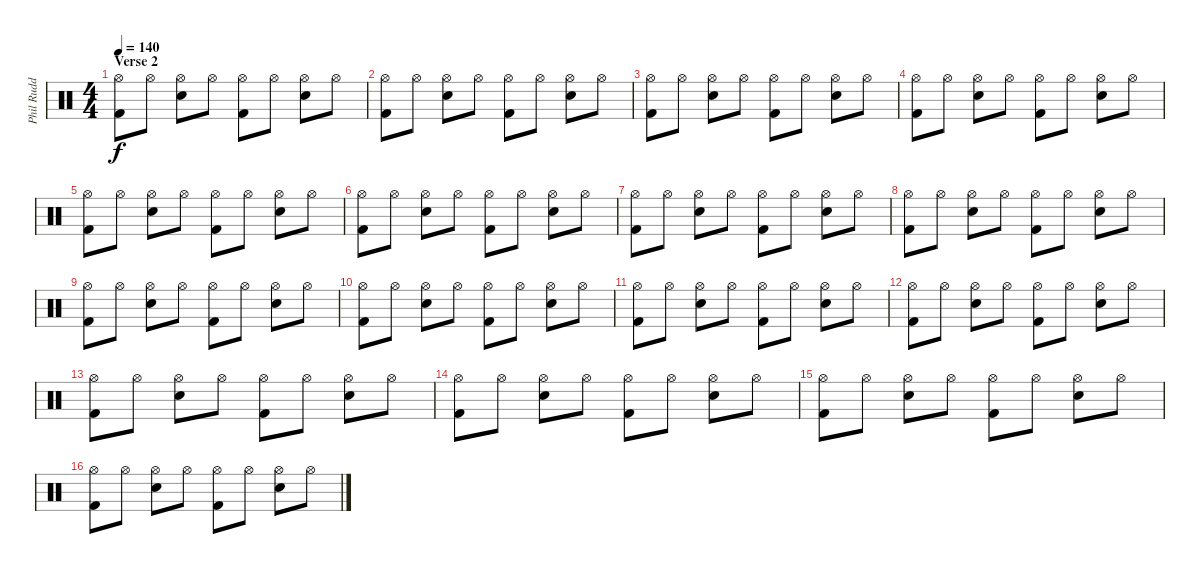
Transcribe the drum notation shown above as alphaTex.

\track ("Phil Rudd" "Phil Rudd") {instrument percussion}
\staff {score}
\articulation defaults
\ts (4 4)
\section ("" "Verse 2")
\tempo 140
\clef neutral
\ks c
("Hi-Hat (open)" "Kick (hit) 2").8{dy f} "Hi-Hat (open)".8 ("Hi-Hat (open)" "Snare (hit) 2").8 "Hi-Hat (open)".8 ("Hi-Hat (open)" "Kick (hit) 2").8 "Hi-Hat (open)".8 ("Hi-Hat (open)" "Snare (hit) 2").8 "Hi-Hat (open)".8 |
("Hi-Hat (open)" "Kick (hit) 2").8 "Hi-Hat (open)".8 ("Hi-Hat (open)" "Snare (hit) 2").8 "Hi-Hat (open)".8 ("Hi-Hat (open)" "Kick (hit) 2").8 "Hi-Hat (open)".8 ("Hi-Hat (open)" "Snare (hit) 2").8 "Hi-Hat (open)".8 |
("Hi-Hat (open)" "Kick (hit) 2").8 "Hi-Hat (open)".8 ("Hi-Hat (open)" "Snare (hit) 2").8 "Hi-Hat (open)".8 ("Hi-Hat (open)" "Kick (hit) 2").8 "Hi-Hat (open)".8 ("Hi-Hat (open)" "Snare (hit) 2").8 "Hi-Hat (open)".8 |
("Hi-Hat (open)" "Kick (hit) 2").8 "Hi-Hat (open)".8 ("Hi-Hat (open)" "Snare (hit) 2").8 "Hi-Hat (open)".8 ("Hi-Hat (open)" "Kick (hit) 2").8 "Hi-Hat (open)".8 ("Hi-Hat (open)" "Snare (hit) 2").8 "Hi-Hat (open)".8 |
("Hi-Hat (open)" "Kick (hit) 2").8 "Hi-Hat (open)".8 ("Hi-Hat (open)" "Snare (hit) 2").8 "Hi-Hat (open)".8 ("Hi-Hat (open)" "Kick (hit) 2").8 "Hi-Hat (open)".8 ("Hi-Hat (open)" "Snare (hit) 2").8 "Hi-Hat (open)".8 |
("Hi-Hat (open)" "Kick (hit) 2").8 "Hi-Hat (open)".8 ("Hi-Hat (open)" "Snare (hit) 2").8 "Hi-Hat (open)".8 ("Hi-Hat (open)" "Kick (hit) 2").8 "Hi-Hat (open)".8 ("Hi-Hat (open)" "Snare (hit) 2").8 "Hi-Hat (open)".8 |
("Hi-Hat (open)" "Kick (hit) 2").8 "Hi-Hat (open)".8 ("Hi-Hat (open)" "Snare (hit) 2").8 "Hi-Hat (open)".8 ("Hi-Hat (open)" "Kick (hit) 2").8 "Hi-Hat (open)".8 ("Hi-Hat (open)" "Snare (hit) 2").8 "Hi-Hat (open)".8 |
("Hi-Hat (open)" "Kick (hit) 2").8 "Hi-Hat (open)".8 ("Hi-Hat (open)" "Snare (hit) 2").8 "Hi-Hat (open)".8 ("Hi-Hat (open)" "Kick (hit) 2").8 "Hi-Hat (open)".8 ("Hi-Hat (open)" "Snare (hit) 2").8 "Hi-Hat (open)".8 |
("Hi-Hat (open)" "Kick (hit) 2").8 "Hi-Hat (open)".8 ("Hi-Hat (open)" "Snare (hit) 2").8 "Hi-Hat (open)".8 ("Hi-Hat (open)" "Kick (hit) 2").8 "Hi-Hat (open)".8 ("Hi-Hat (open)" "Snare (hit) 2").8 "Hi-Hat (open)".8 |
("Hi-Hat (open)" "Kick (hit) 2").8 "Hi-Hat (open)".8 ("Hi-Hat (open)" "Snare (hit) 2").8 "Hi-Hat (open)".8 ("Hi-Hat (open)" "Kick (hit) 2").8 "Hi-Hat (open)".8 ("Hi-Hat (open)" "Snare (hit) 2").8 "Hi-Hat (open)".8 |
("Hi-Hat (open)" "Kick (hit) 2").8 "Hi-Hat (open)".8 ("Hi-Hat (open)" "Snare (hit) 2").8 "Hi-Hat (open)".8 ("Hi-Hat (open)" "Kick (hit) 2").8 "Hi-Hat (open)".8 ("Hi-Hat (open)" "Snare (hit) 2").8 "Hi-Hat (open)".8 |
("Hi-Hat (open)" "Kick (hit) 2").8 "Hi-Hat (open)".8 ("Hi-Hat (open)" "Snare (hit) 2").8 "Hi-Hat (open)".8 ("Hi-Hat (open)" "Kick (hit) 2").8 "Hi-Hat (open)".8 ("Hi-Hat (open)" "Snare (hit) 2").8 "Hi-Hat (open)".8 |
("Hi-Hat (open)" "Kick (hit) 2").8 "Hi-Hat (open)".8 ("Hi-Hat (open)" "Snare (hit) 2").8 "Hi-Hat (open)".8 ("Hi-Hat (open)" "Kick (hit) 2").8 "Hi-Hat (open)".8 ("Hi-Hat (open)" "Snare (hit) 2").8 "Hi-Hat (open)".8 |
("Hi-Hat (open)" "Kick (hit) 2").8 "Hi-Hat (open)".8 ("Hi-Hat (open)" "Snare (hit) 2").8 "Hi-Hat (open)".8 ("Hi-Hat (open)" "Kick (hit) 2").8 "Hi-Hat (open)".8 ("Hi-Hat (open)" "Snare (hit) 2").8 "Hi-Hat (open)".8 |
("Hi-Hat (open)" "Kick (hit) 2").8 "Hi-Hat (open)".8 ("Hi-Hat (open)" "Snare (hit) 2").8 "Hi-Hat (open)".8 ("Hi-Hat (open)" "Kick (hit) 2").8 "Hi-Hat (open)".8 ("Hi-Hat (open)" "Snare (hit) 2").8 "Hi-Hat (open)".8 |
("Hi-Hat (open)" "Kick (hit) 2").8 "Hi-Hat (open)".8 ("Hi-Hat (open)" "Snare (hit) 2").8 "Hi-Hat (open)".8 ("Hi-Hat (open)" "Kick (hit) 2").8 "Hi-Hat (open)".8 ("Hi-Hat (open)" "Snare (hit) 2").8 "Hi-Hat (open)".8
